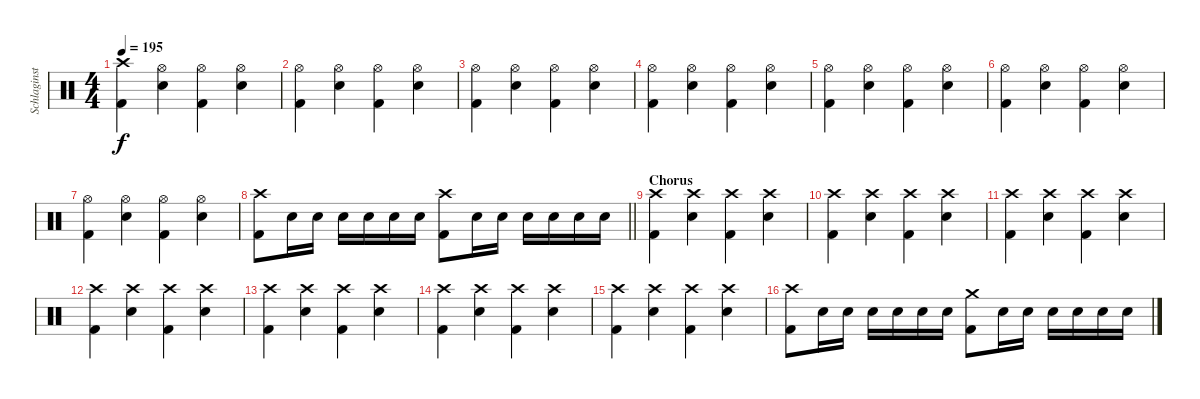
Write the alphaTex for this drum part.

\track ("Schlaginstrumente - Auswahl" "Schlaginst") {instrument percussion}
\staff {score}
\articulation defaults
\ts (4 4)
\tempo 195
\clef neutral
\ks c
("Kick (hit) 2" "Crash high (hit)").4{dy f} ("Hi-Hat (open)" "Snare (hit) 2").4 ("Hi-Hat (open)" "Kick (hit) 2").4 ("Hi-Hat (open)" "Snare (hit) 2").4 |
("Hi-Hat (open)" "Kick (hit) 2").4 ("Hi-Hat (open)" "Snare (hit) 2").4 ("Hi-Hat (open)" "Kick (hit) 2").4 ("Hi-Hat (open)" "Snare (hit) 2").4 |
("Hi-Hat (open)" "Kick (hit) 2").4 ("Hi-Hat (open)" "Snare (hit) 2").4 ("Hi-Hat (open)" "Kick (hit) 2").4 ("Hi-Hat (open)" "Snare (hit) 2").4 |
("Hi-Hat (open)" "Kick (hit) 2").4 ("Hi-Hat (open)" "Snare (hit) 2").4 ("Hi-Hat (open)" "Kick (hit) 2").4 ("Hi-Hat (open)" "Snare (hit) 2").4 |
("Hi-Hat (open)" "Kick (hit) 2").4 ("Hi-Hat (open)" "Snare (hit) 2").4 ("Hi-Hat (open)" "Kick (hit) 2").4 ("Hi-Hat (open)" "Snare (hit) 2").4 |
("Hi-Hat (open)" "Kick (hit) 2").4 ("Hi-Hat (open)" "Snare (hit) 2").4 ("Hi-Hat (open)" "Kick (hit) 2").4 ("Hi-Hat (open)" "Snare (hit) 2").4 |
("Hi-Hat (open)" "Kick (hit) 2").4 ("Hi-Hat (open)" "Snare (hit) 2").4 ("Hi-Hat (open)" "Kick (hit) 2").4 ("Hi-Hat (open)" "Snare (hit) 2").4 |
\barLineRight lightlight
("Crash high (hit)" "Kick (hit) 2").8 "Snare (hit) 2".16 "Snare (hit) 2".16 "Snare (hit) 2".16 "Snare (hit) 2".16 "Snare (hit) 2".16 "Snare (hit) 2".16 ("Crash high (hit)" "Kick (hit) 2").8 "Snare (hit) 2".16 "Snare (hit) 2".16 "Snare (hit) 2".16 "Snare (hit) 2".16 "Snare (hit) 2".16 "Snare (hit) 2".16 |
\section ("" "Chorus")
("Crash high (hit)" "Kick (hit) 2").4 ("Crash high (hit)" "Snare (hit) 2").4 ("Crash high (hit)" "Kick (hit) 2").4 ("Crash high (hit)" "Snare (hit) 2").4 |
("Crash high (hit)" "Kick (hit) 2").4 ("Crash high (hit)" "Snare (hit) 2").4 ("Crash high (hit)" "Kick (hit) 2").4 ("Crash high (hit)" "Snare (hit) 2").4 |
("Crash high (hit)" "Kick (hit) 2").4 ("Crash high (hit)" "Snare (hit) 2").4 ("Crash high (hit)" "Kick (hit) 2").4 ("Crash high (hit)" "Snare (hit) 2").4 |
("Crash high (hit)" "Kick (hit) 2").4 ("Crash high (hit)" "Snare (hit) 2").4 ("Crash high (hit)" "Kick (hit) 2").4 ("Crash high (hit)" "Snare (hit) 2").4 |
("Crash high (hit)" "Kick (hit) 2").4 ("Crash high (hit)" "Snare (hit) 2").4 ("Crash high (hit)" "Kick (hit) 2").4 ("Crash high (hit)" "Snare (hit) 2").4 |
("Crash high (hit)" "Kick (hit) 2").4 ("Crash high (hit)" "Snare (hit) 2").4 ("Crash high (hit)" "Kick (hit) 2").4 ("Crash high (hit)" "Snare (hit) 2").4 |
("Crash high (hit)" "Kick (hit) 2").4 ("Crash high (hit)" "Snare (hit) 2").4 ("Crash high (hit)" "Kick (hit) 2").4 ("Crash high (hit)" "Snare (hit) 2").4 |
("Crash high (hit)" "Kick (hit) 2").8 "Snare (hit) 2".16 "Snare (hit) 2".16 "Snare (hit) 2".16 "Snare (hit) 2".16 "Snare (hit) 2".16 "Snare (hit) 2".16 ("Crash medium (hit)" "Kick (hit) 2").8 "Snare (hit) 2".16 "Snare (hit) 2".16 "Snare (hit) 2".16 "Snare (hit) 2".16 "Snare (hit) 2".16 "Snare (hit) 2".16
